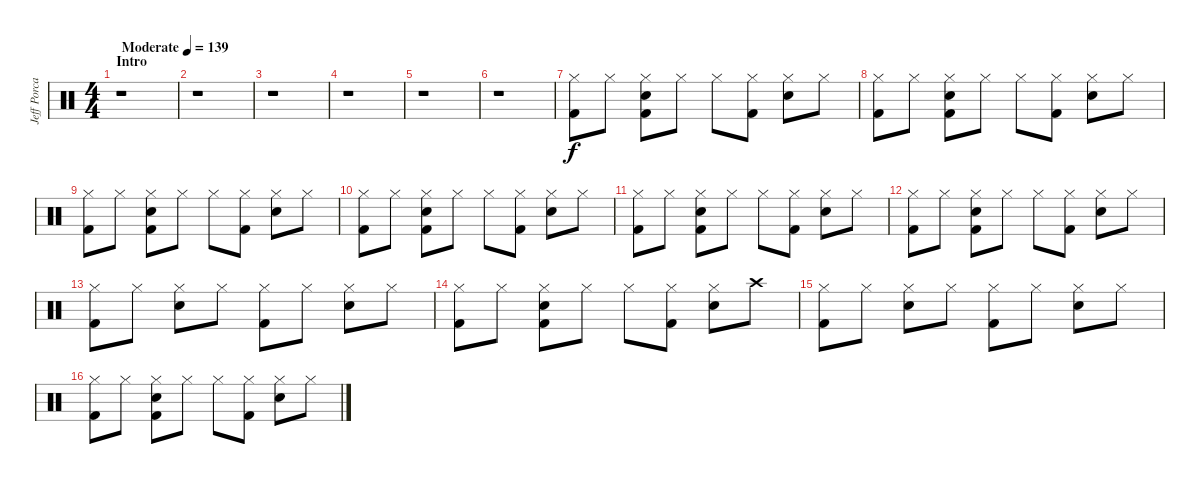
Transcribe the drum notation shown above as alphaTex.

\track ("Jeff Porcaro (Percussion)" "Jeff Porca") {instrument percussion}
\staff {score}
\articulation defaults
\ts (4 4)
\section ("" "Intro")
\tempo (139 "Moderate")
\clef neutral
\ks c
r.1{dy f} |
r.1 |
r.1 |
r.1 |
r.1 |
r.1 |
("Hi-Hat (closed)" "Kick (hit) 2").8 "Hi-Hat (closed)".8 ("Hi-Hat (closed)" "Snare (hit) 2" "Kick (hit) 2").8 "Hi-Hat (closed)".8 "Hi-Hat (closed)".8 ("Hi-Hat (closed)" "Kick (hit) 2").8 ("Hi-Hat (closed)" "Snare (hit) 2").8 "Hi-Hat (closed)".8 |
("Hi-Hat (closed)" "Kick (hit) 2").8 "Hi-Hat (closed)".8 ("Hi-Hat (closed)" "Snare (hit) 2" "Kick (hit) 2").8 "Hi-Hat (closed)".8 "Hi-Hat (closed)".8 ("Hi-Hat (closed)" "Kick (hit) 2").8 ("Hi-Hat (closed)" "Snare (hit) 2").8 "Hi-Hat (closed)".8 |
("Hi-Hat (closed)" "Kick (hit) 2").8 "Hi-Hat (closed)".8 ("Hi-Hat (closed)" "Snare (hit) 2" "Kick (hit) 2").8 "Hi-Hat (closed)".8 "Hi-Hat (closed)".8 ("Hi-Hat (closed)" "Kick (hit) 2").8 ("Hi-Hat (closed)" "Snare (hit) 2").8 "Hi-Hat (closed)".8 |
("Hi-Hat (closed)" "Kick (hit) 2").8 "Hi-Hat (closed)".8 ("Hi-Hat (closed)" "Snare (hit) 2" "Kick (hit) 2").8 "Hi-Hat (closed)".8 "Hi-Hat (closed)".8 ("Hi-Hat (closed)" "Kick (hit) 2").8 ("Hi-Hat (closed)" "Snare (hit) 2").8 "Hi-Hat (closed)".8 |
("Hi-Hat (closed)" "Kick (hit) 2").8 "Hi-Hat (closed)".8 ("Hi-Hat (closed)" "Snare (hit) 2" "Kick (hit) 2").8 "Hi-Hat (closed)".8 "Hi-Hat (closed)".8 ("Hi-Hat (closed)" "Kick (hit) 2").8 ("Hi-Hat (closed)" "Snare (hit) 2").8 "Hi-Hat (closed)".8 |
("Hi-Hat (closed)" "Kick (hit) 2").8 "Hi-Hat (closed)".8 ("Hi-Hat (closed)" "Snare (hit) 2" "Kick (hit) 2").8 "Hi-Hat (closed)".8 "Hi-Hat (closed)".8 ("Hi-Hat (closed)" "Kick (hit) 2").8 ("Hi-Hat (closed)" "Snare (hit) 2").8 "Hi-Hat (closed)".8 |
("Hi-Hat (closed)" "Kick (hit) 2").8 "Hi-Hat (closed)".8 ("Hi-Hat (closed)" "Snare (hit) 2").8 "Hi-Hat (closed)".8 ("Hi-Hat (closed)" "Kick (hit) 2").8 "Hi-Hat (closed)".8 ("Hi-Hat (closed)" "Snare (hit) 2").8 "Hi-Hat (closed)".8 |
("Hi-Hat (closed)" "Kick (hit) 2").8 "Hi-Hat (closed)".8 ("Hi-Hat (closed)" "Snare (hit) 2" "Kick (hit) 2").8 "Hi-Hat (closed)".8 "Hi-Hat (closed)".8 ("Hi-Hat (closed)" "Kick (hit) 2").8 ("Hi-Hat (closed)" "Snare (hit) 2").8 "Crash high (hit)".8 |
("Hi-Hat (closed)" "Kick (hit) 2").8 "Hi-Hat (closed)".8 ("Hi-Hat (closed)" "Snare (hit) 2").8 "Hi-Hat (closed)".8 ("Hi-Hat (closed)" "Kick (hit) 2").8 "Hi-Hat (closed)".8 ("Hi-Hat (closed)" "Snare (hit) 2").8 "Hi-Hat (closed)".8 |
("Hi-Hat (closed)" "Kick (hit) 2").8 "Hi-Hat (closed)".8 ("Hi-Hat (closed)" "Snare (hit) 2" "Kick (hit) 2").8 "Hi-Hat (closed)".8 "Hi-Hat (closed)".8 ("Hi-Hat (closed)" "Kick (hit) 2").8 ("Hi-Hat (closed)" "Snare (hit) 2").8 "Hi-Hat (closed)".8
